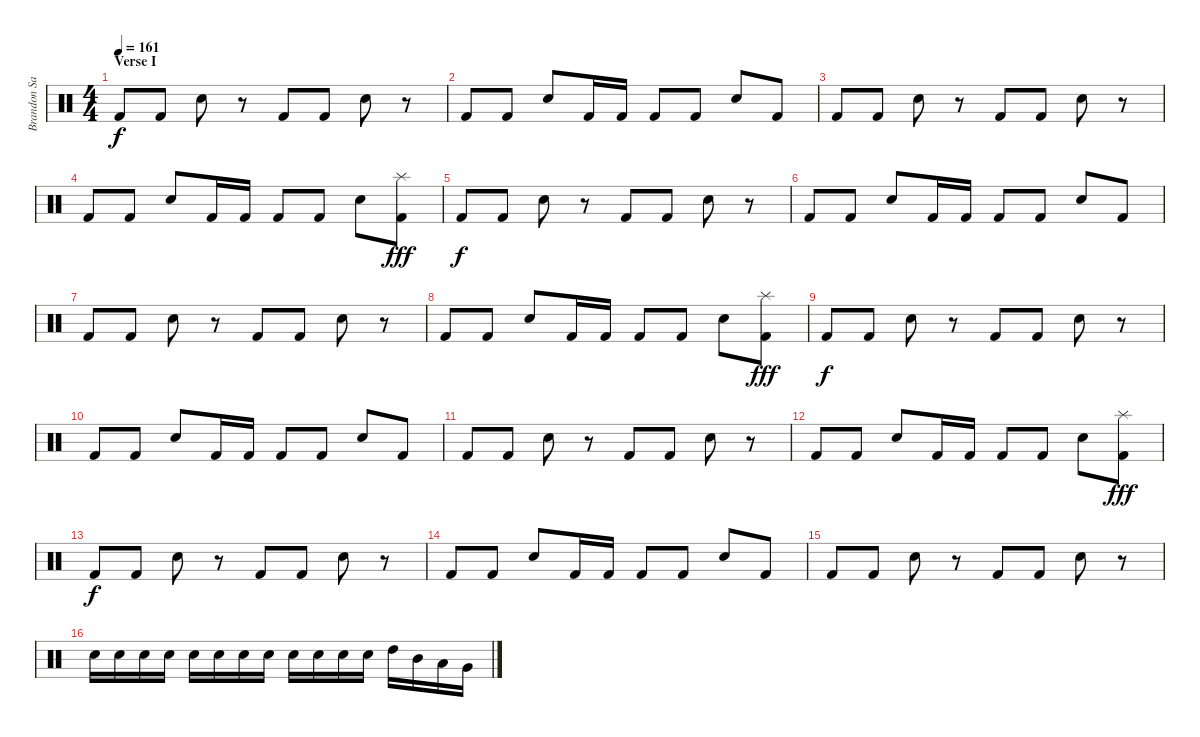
\track ("Brandon Saller" "Brandon Sa") {instrument percussion}
\staff {score}
\articulation defaults
\ts (4 4)
\section ("" "Verse I")
\tempo 161
\clef neutral
\ks c "Kick (hit) 2".8{dy f} "Kick (hit) 2".8 "Electric Snare (hit)".8
r.8 "Kick (hit) 2".8 "Kick (hit) 2".8 "Electric Snare (hit)".8 r.8 |
"Kick (hit) 2".8 "Kick (hit) 2".8 "Electric Snare (hit)".8 "Kick (hit) 2".16 "Kick (hit) 2".16 "Kick (hit) 2".8 "Kick (hit) 2".8 "Electric Snare (hit)".8 "Kick (hit) 2".8 |
"Kick (hit) 2".8 "Kick (hit) 2".8 "Electric Snare (hit)".8 r.8 "Kick (hit) 2".8 "Kick (hit) 2".8 "Electric Snare (hit)".8 r.8 |
"Kick (hit) 2".8 "Kick (hit) 2".8 "Electric Snare (hit)".8 "Kick (hit) 2".16 "Kick (hit) 2".16 "Kick (hit) 2".8 "Kick (hit) 2".8 "Electric Snare (hit)".8 ("Splash (hit)" "Kick (hit) 2").8{dy fff} |
"Kick (hit) 2".8{dy f} "Kick (hit) 2".8 "Electric Snare (hit)".8 r.8 "Kick (hit) 2".8 "Kick (hit) 2".8 "Electric Snare (hit)".8 r.8 |
"Kick (hit) 2".8 "Kick (hit) 2".8 "Electric Snare (hit)".8 "Kick (hit) 2".16 "Kick (hit) 2".16 "Kick (hit) 2".8 "Kick (hit) 2".8 "Electric Snare (hit)".8 "Kick (hit) 2".8 |
"Kick (hit) 2".8 "Kick (hit) 2".8 "Electric Snare (hit)".8 r.8 "Kick (hit) 2".8 "Kick (hit) 2".8 "Electric Snare (hit)".8 r.8 |
"Kick (hit) 2".8 "Kick (hit) 2".8 "Electric Snare (hit)".8 "Kick (hit) 2".16 "Kick (hit) 2".16 "Kick (hit) 2".8 "Kick (hit) 2".8 "Electric Snare (hit)".8 ("Splash (hit)" "Kick (hit) 2").8{dy fff} |
"Kick (hit) 2".8{dy f} "Kick (hit) 2".8 "Electric Snare (hit)".8 r.8 "Kick (hit) 2".8 "Kick (hit) 2".8 "Electric Snare (hit)".8 r.8 |
"Kick (hit) 2".8 "Kick (hit) 2".8 "Electric Snare (hit)".8 "Kick (hit) 2".16 "Kick (hit) 2".16 "Kick (hit) 2".8 "Kick (hit) 2".8 "Electric Snare (hit)".8 "Kick (hit) 2".8 |
"Kick (hit) 2".8 "Kick (hit) 2".8 "Electric Snare (hit)".8 r.8 "Kick (hit) 2".8 "Kick (hit) 2".8 "Electric Snare (hit)".8 r.8 |
"Kick (hit) 2".8 "Kick (hit) 2".8 "Electric Snare (hit)".8 "Kick (hit) 2".16 "Kick (hit) 2".16 "Kick (hit) 2".8 "Kick (hit) 2".8 "Electric Snare (hit)".8 ("Splash (hit)" "Kick (hit) 2").8{dy fff} |
"Kick (hit) 2".8{dy f} "Kick (hit) 2".8 "Electric Snare (hit)".8 r.8 "Kick (hit) 2".8 "Kick (hit) 2".8 "Electric Snare (hit)".8 r.8 |
"Kick (hit) 2".8 "Kick (hit) 2".8 "Electric Snare (hit)".8 "Kick (hit) 2".16 "Kick (hit) 2".16 "Kick (hit) 2".8 "Kick (hit) 2".8 "Electric Snare (hit)".8 "Kick (hit) 2".8 |
"Kick (hit) 2".8 "Kick (hit) 2".8 "Electric Snare (hit)".8 r.8 "Kick (hit) 2".8 "Kick (hit) 2".8 "Electric Snare (hit)".8 r.8 |
"Electric Snare (hit)".16 "Electric Snare (hit)".16 "Electric Snare (hit)".16 "Electric Snare (hit)".16 "Electric Snare (hit)".16 "Electric Snare (hit)".16 "Electric Snare (hit)".16 "Electric Snare (hit)".16 "Electric Snare (hit)".16 "Electric Snare (hit)".16 "Electric Snare (hit)".16 "Electric Snare (hit)".16 "High Tom (hit)".16 "Mid Tom (hit)".16 "Low Tom (hit)".16 "Very Low Tom (hit)".16
